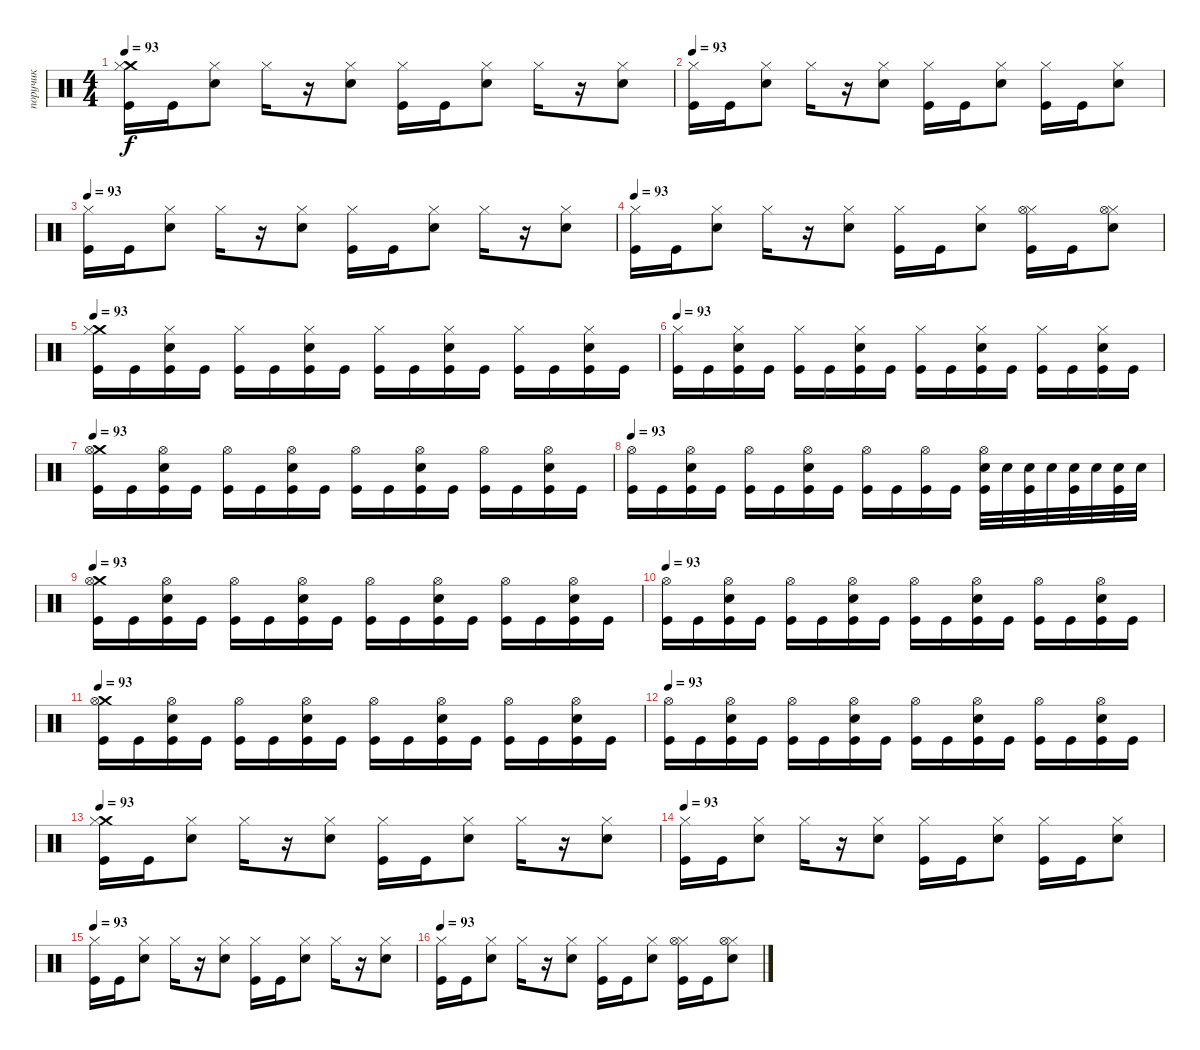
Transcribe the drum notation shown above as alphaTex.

\track ("поручик" "поручик") {instrument percussion}
\staff {score}
\articulation defaults
\ts (4 4)
\tempo 93
\clef neutral
\ks c
("Kick (hit)" "Crash medium (hit)" "Hi-Hat (closed)").16{dy f} "Kick (hit)".16 ("Hi-Hat (closed)" "Electric Snare (hit)").8 "Hi-Hat (closed)".16 r.16 ("Electric Snare (hit)" "Hi-Hat (closed)").8 ("Kick (hit)" "Hi-Hat (closed)").16 "Kick (hit)".16 ("Hi-Hat (closed)" "Electric Snare (hit)").8 "Hi-Hat (closed)".16 r.16 ("Electric Snare (hit)" "Hi-Hat (closed)").8 |
\tempo 93
("Kick (hit)" "Hi-Hat (closed)").16 "Kick (hit)".16 ("Hi-Hat (closed)" "Electric Snare (hit)").8 "Hi-Hat (closed)".16 r.16 ("Electric Snare (hit)" "Hi-Hat (closed)").8 ("Kick (hit)" "Hi-Hat (closed)").16 "Kick (hit)".16 ("Hi-Hat (closed)" "Electric Snare (hit)").8 ("Kick (hit)" "Hi-Hat (closed)").16 "Kick (hit)".16 ("Electric Snare (hit)" "Hi-Hat (closed)").8 |
\tempo 93
("Kick (hit)" "Hi-Hat (closed)").16 "Kick (hit)".16 ("Hi-Hat (closed)" "Electric Snare (hit)").8 "Hi-Hat (closed)".16 r.16 ("Electric Snare (hit)" "Hi-Hat (closed)").8 ("Kick (hit)" "Hi-Hat (closed)").16 "Kick (hit)".16 ("Hi-Hat (closed)" "Electric Snare (hit)").8 "Hi-Hat (closed)".16 r.16 ("Electric Snare (hit)" "Hi-Hat (closed)").8 |
\tempo 93
("Kick (hit)" "Hi-Hat (closed)").16 "Kick (hit)".16 ("Hi-Hat (closed)" "Electric Snare (hit)").8 "Hi-Hat (closed)".16 r.16 ("Electric Snare (hit)" "Hi-Hat (closed)").8 ("Kick (hit)" "Hi-Hat (closed)").16 "Kick (hit)".16 ("Hi-Hat (closed)" "Electric Snare (hit)").8 ("Kick (hit)" "Hi-Hat (closed)" "Hi-Hat (open)").16 "Kick (hit)".16 ("Electric Snare (hit)" "Hi-Hat (closed)" "Hi-Hat (open)").8 |
\tempo 93
("Kick (hit)" "Crash medium (hit)" "Hi-Hat (closed)").16 "Kick (hit)".16 ("Kick (hit)" "Hi-Hat (closed)" "Electric Snare (hit)").16 "Kick (hit)".16 ("Kick (hit)" "Hi-Hat (closed)").16 "Kick (hit)".16 ("Kick (hit)" "Electric Snare (hit)" "Hi-Hat (closed)").16 "Kick (hit)".16 ("Kick (hit)" "Hi-Hat (closed)").16 "Kick (hit)".16 ("Kick (hit)" "Hi-Hat (closed)" "Electric Snare (hit)").16 "Kick (hit)".16 ("Kick (hit)" "Hi-Hat (closed)").16 "Kick (hit)".16 ("Kick (hit)" "Electric Snare (hit)" "Hi-Hat (closed)").16 "Kick (hit)".16 |
\tempo 93
("Kick (hit)" "Hi-Hat (closed)").16 "Kick (hit)".16 ("Kick (hit)" "Hi-Hat (closed)" "Electric Snare (hit)").16 "Kick (hit)".16 ("Kick (hit)" "Hi-Hat (closed)").16 "Kick (hit)".16 ("Kick (hit)" "Electric Snare (hit)" "Hi-Hat (closed)").16 "Kick (hit)".16 ("Kick (hit)" "Hi-Hat (closed)").16 "Kick (hit)".16 ("Kick (hit)" "Hi-Hat (closed)" "Electric Snare (hit)").16 "Kick (hit)".16 ("Kick (hit)" "Hi-Hat (closed)").16 "Kick (hit)".16 ("Kick (hit)" "Electric Snare (hit)" "Hi-Hat (closed)").16 "Kick (hit)".16 |
\tempo 93
("Crash medium (hit)" "Kick (hit)" "Hi-Hat (open)").16 "Kick (hit)".16 ("Kick (hit)" "Hi-Hat (open)" "Electric Snare (hit)").16 "Kick (hit)".16 ("Kick (hit)" "Hi-Hat (open)").16 "Kick (hit)".16 ("Hi-Hat (open)" "Kick (hit)" "Electric Snare (hit)").16 "Kick (hit)".16 ("Hi-Hat (open)" "Kick (hit)").16 "Kick (hit)".16 ("Kick (hit)" "Hi-Hat (open)" "Electric Snare (hit)").16 "Kick (hit)".16 ("Hi-Hat (open)" "Kick (hit)").16 "Kick (hit)".16 ("Kick (hit)" "Electric Snare (hit)" "Hi-Hat (open)").16 "Kick (hit)".16 |
\tempo 93
("Kick (hit)" "Hi-Hat (open)").16 "Kick (hit)".16 ("Kick (hit)" "Hi-Hat (open)" "Electric Snare (hit)").16 "Kick (hit)".16 ("Kick (hit)" "Hi-Hat (open)").16 "Kick (hit)".16 ("Hi-Hat (open)" "Kick (hit)" "Electric Snare (hit)").16 "Kick (hit)".16 ("Kick (hit)" "Hi-Hat (open)").16 "Kick (hit)".16 ("Hi-Hat (open)" "Kick (hit)").16 "Kick (hit)".16 ("Hi-Hat (open)" "Electric Snare (hit)" "Kick (hit)").32 "Electric Snare (hit)".32 ("Electric Snare (hit)" "Kick (hit)").32 "Electric Snare (hit)".32 ("Electric Snare (hit)" "Kick (hit)").32 "Electric Snare (hit)".32 ("Electric Snare (hit)" "Kick (hit)").32 "Electric Snare (hit)".32 |
\tempo 93
("Crash medium (hit)" "Kick (hit)" "Hi-Hat (open)").16 "Kick (hit)".16 ("Kick (hit)" "Hi-Hat (open)" "Electric Snare (hit)").16 "Kick (hit)".16 ("Kick (hit)" "Hi-Hat (open)").16 "Kick (hit)".16 ("Hi-Hat (open)" "Kick (hit)" "Electric Snare (hit)").16 "Kick (hit)".16 ("Hi-Hat (open)" "Kick (hit)").16 "Kick (hit)".16 ("Kick (hit)" "Hi-Hat (open)" "Electric Snare (hit)").16 "Kick (hit)".16 ("Hi-Hat (open)" "Kick (hit)").16 "Kick (hit)".16 ("Kick (hit)" "Electric Snare (hit)" "Hi-Hat (open)").16 "Kick (hit)".16 |
\tempo 93
("Kick (hit)" "Hi-Hat (open)").16 "Kick (hit)".16 ("Kick (hit)" "Hi-Hat (open)" "Electric Snare (hit)").16 "Kick (hit)".16 ("Kick (hit)" "Hi-Hat (open)").16 "Kick (hit)".16 ("Hi-Hat (open)" "Kick (hit)" "Electric Snare (hit)").16 "Kick (hit)".16 ("Hi-Hat (open)" "Kick (hit)").16 "Kick (hit)".16 ("Kick (hit)" "Hi-Hat (open)" "Electric Snare (hit)").16 "Kick (hit)".16 ("Hi-Hat (open)" "Kick (hit)").16 "Kick (hit)".16 ("Kick (hit)" "Electric Snare (hit)" "Hi-Hat (open)").16 "Kick (hit)".16 |
\tempo 93
("Crash medium (hit)" "Kick (hit)" "Hi-Hat (open)").16 "Kick (hit)".16 ("Kick (hit)" "Hi-Hat (open)" "Electric Snare (hit)").16 "Kick (hit)".16 ("Kick (hit)" "Hi-Hat (open)").16 "Kick (hit)".16 ("Hi-Hat (open)" "Kick (hit)" "Electric Snare (hit)").16 "Kick (hit)".16 ("Hi-Hat (open)" "Kick (hit)").16 "Kick (hit)".16 ("Kick (hit)" "Hi-Hat (open)" "Electric Snare (hit)").16 "Kick (hit)".16 ("Hi-Hat (open)" "Kick (hit)").16 "Kick (hit)".16 ("Kick (hit)" "Electric Snare (hit)" "Hi-Hat (open)").16 "Kick (hit)".16 |
\tempo 93
("Kick (hit)" "Hi-Hat (open)").16 "Kick (hit)".16 ("Kick (hit)" "Hi-Hat (open)" "Electric Snare (hit)").16 "Kick (hit)".16 ("Kick (hit)" "Hi-Hat (open)").16 "Kick (hit)".16 ("Hi-Hat (open)" "Kick (hit)" "Electric Snare (hit)").16 "Kick (hit)".16 ("Hi-Hat (open)" "Kick (hit)").16 "Kick (hit)".16 ("Kick (hit)" "Hi-Hat (open)" "Electric Snare (hit)").16 "Kick (hit)".16 ("Hi-Hat (open)" "Kick (hit)").16 "Kick (hit)".16 ("Kick (hit)" "Electric Snare (hit)" "Hi-Hat (open)").16 "Kick (hit)".16 |
\tempo 93
("Kick (hit)" "Crash medium (hit)" "Hi-Hat (closed)").16 "Kick (hit)".16 ("Hi-Hat (closed)" "Electric Snare (hit)").8 "Hi-Hat (closed)".16 r.16 ("Electric Snare (hit)" "Hi-Hat (closed)").8 ("Kick (hit)" "Hi-Hat (closed)").16 "Kick (hit)".16 ("Hi-Hat (closed)" "Electric Snare (hit)").8 "Hi-Hat (closed)".16 r.16 ("Electric Snare (hit)" "Hi-Hat (closed)").8 |
\tempo 93
("Kick (hit)" "Hi-Hat (closed)").16 "Kick (hit)".16 ("Hi-Hat (closed)" "Electric Snare (hit)").8 "Hi-Hat (closed)".16 r.16 ("Electric Snare (hit)" "Hi-Hat (closed)").8 ("Kick (hit)" "Hi-Hat (closed)").16 "Kick (hit)".16 ("Hi-Hat (closed)" "Electric Snare (hit)").8 ("Kick (hit)" "Hi-Hat (closed)").16 "Kick (hit)".16 ("Electric Snare (hit)" "Hi-Hat (closed)").8 |
\tempo 93
("Kick (hit)" "Hi-Hat (closed)").16 "Kick (hit)".16 ("Hi-Hat (closed)" "Electric Snare (hit)").8 "Hi-Hat (closed)".16 r.16 ("Electric Snare (hit)" "Hi-Hat (closed)").8 ("Kick (hit)" "Hi-Hat (closed)").16 "Kick (hit)".16 ("Hi-Hat (closed)" "Electric Snare (hit)").8 "Hi-Hat (closed)".16 r.16 ("Electric Snare (hit)" "Hi-Hat (closed)").8 |
\tempo 93
("Kick (hit)" "Hi-Hat (closed)").16 "Kick (hit)".16 ("Hi-Hat (closed)" "Electric Snare (hit)").8 "Hi-Hat (closed)".16 r.16 ("Electric Snare (hit)" "Hi-Hat (closed)").8 ("Kick (hit)" "Hi-Hat (closed)").16 "Kick (hit)".16 ("Hi-Hat (closed)" "Electric Snare (hit)").8 ("Kick (hit)" "Hi-Hat (closed)" "Hi-Hat (open)").16 "Kick (hit)".16 ("Electric Snare (hit)" "Hi-Hat (closed)" "Hi-Hat (open)").8
